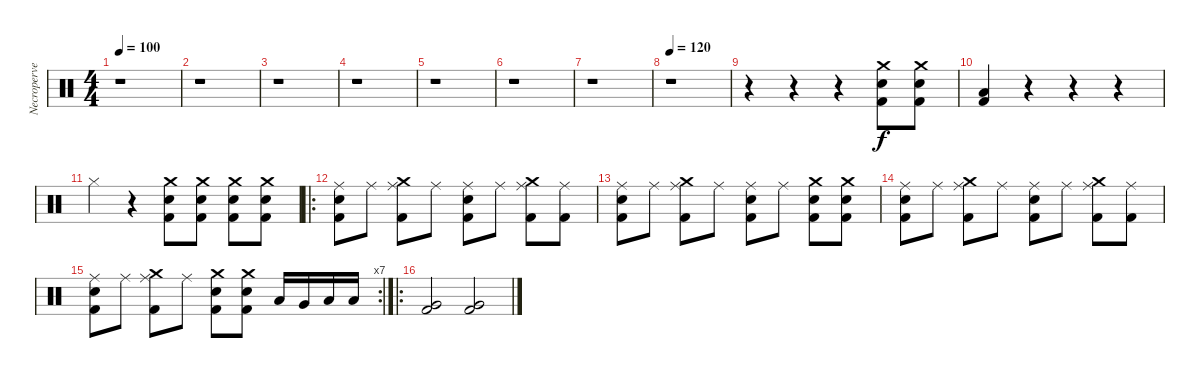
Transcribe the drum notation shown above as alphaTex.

\track ("Necroperversor" "Necroperve") {instrument percussion}
\staff {score}
\articulation defaults
\ts (4 4)
\tempo 100
\clef neutral
\ks c
r.1{dy f} |
r.1 |
r.1 |
r.1 |
r.1 |
r.1 |
r.1 |
\tempo 120
r.1 |
r.4 r.4 r.4 ("Crash medium (hit)" "Electric Snare (hit)" "Kick (hit) 2").8 ("Crash medium (hit)" "Electric Snare (hit)" "Kick (hit) 2").8 |
("Low Tom (hit)" "Kick (hit) 2").4 r.4 r.4 r.4 |
"Hi-Hat (closed)".4 r.4 ("Crash medium (hit)" "Electric Snare (hit)" "Kick (hit) 2").8 ("Crash medium (hit)" "Electric Snare (hit)" "Kick (hit) 2").8 ("Crash medium (hit)" "Electric Snare (hit)" "Kick (hit) 2").8 ("Crash medium (hit)" "Electric Snare (hit)" "Kick (hit) 2").8 |
\ro
("Ride (middle)" "Electric Snare (hit)" "Kick (hit) 2").8 "Ride (middle)".8 ("Ride (middle)" "Crash medium (hit)" "Kick (hit) 2").8 "Ride (middle)".8 ("Ride (middle)" "Electric Snare (hit)" "Kick (hit) 2").8 "Ride (middle)".8 ("Ride (middle)" "Crash medium (hit)" "Kick (hit) 2").8 ("Ride (middle)" "Kick (hit) 2").8 |
("Ride (middle)" "Electric Snare (hit)" "Kick (hit) 2").8 "Ride (middle)".8 ("Ride (middle)" "Crash medium (hit)" "Kick (hit) 2").8 "Ride (middle)".8 ("Ride (middle)" "Electric Snare (hit)" "Kick (hit) 2").8 "Ride (middle)".8 ("Crash medium (hit)" "Electric Snare (hit)" "Kick (hit) 2").8 ("Crash medium (hit)" "Electric Snare (hit)" "Kick (hit) 2").8 |
("Ride (middle)" "Electric Snare (hit)" "Kick (hit) 2").8 "Ride (middle)".8 ("Ride (middle)" "Crash medium (hit)" "Kick (hit) 2").8 "Ride (middle)".8 ("Ride (middle)" "Electric Snare (hit)" "Kick (hit) 2").8 "Ride (middle)".8 ("Ride (middle)" "Crash medium (hit)" "Kick (hit) 2").8 ("Ride (middle)" "Kick (hit) 2").8 |
\rc 7
("Ride (middle)" "Electric Snare (hit)" "Kick (hit) 2").8 "Ride (middle)".8 ("Ride (middle)" "Crash medium (hit)" "Kick (hit) 2").8 "Ride (middle)".8 ("Crash medium (hit)" "Electric Snare (hit)" "Kick (hit) 2").8 ("Crash medium (hit)" "Electric Snare (hit)" "Kick (hit) 2").8 "Low Tom (hit)".16 "Very Low Tom (hit)".16 "Low Floor Tom (hit)".16 "Low Floor Tom (hit)".16 |
\ro
("Very Low Tom (hit)" "Kick (hit) 2").2 ("Very Low Tom (hit)" "Kick (hit) 2").2
